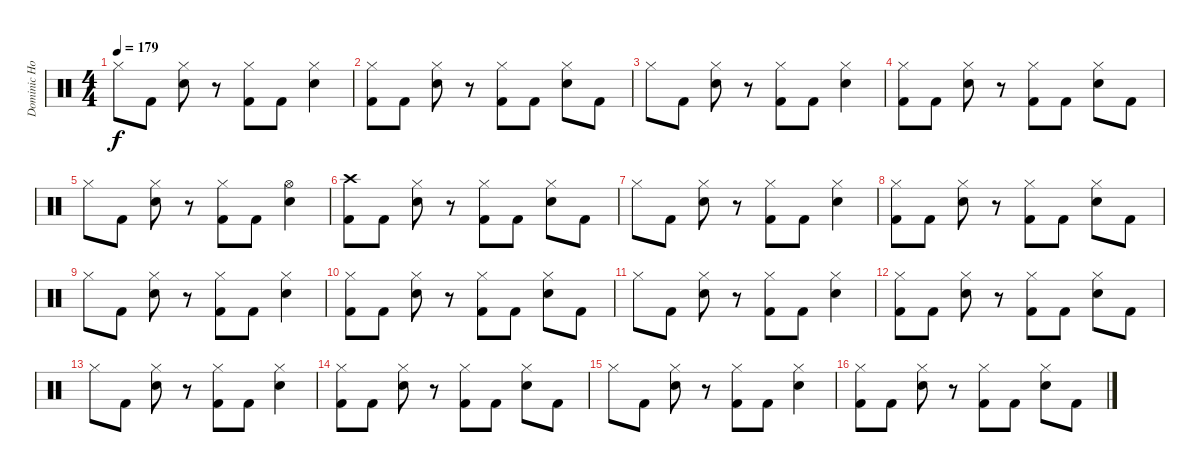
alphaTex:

\track ("Dominic Howard" "Dominic Ho") {instrument percussion}
\staff {score}
\articulation defaults
\ts (4 4)
\tempo 179
\clef neutral
\ks c "Hi-Hat (closed)".8{dy f} "Kick (hit) 2".8
("Hi-Hat (closed)" "Electric Snare (hit)").8 r.8 ("Hi-Hat (closed)" "Kick (hit) 2").8 "Kick (hit) 2".8 ("Hi-Hat (closed)" "Electric Snare (hit)").4 |
("Hi-Hat (closed)" "Kick (hit) 2").8 "Kick (hit) 2".8 ("Hi-Hat (closed)" "Electric Snare (hit)").8 r.8 ("Hi-Hat (closed)" "Kick (hit) 2").8 "Kick (hit) 2".8 ("Hi-Hat (closed)" "Electric Snare (hit)").8 "Kick (hit) 2".8 |
"Hi-Hat (closed)".8 "Kick (hit) 2".8 ("Hi-Hat (closed)" "Electric Snare (hit)").8 r.8 ("Hi-Hat (closed)" "Kick (hit) 2").8 "Kick (hit) 2".8 ("Hi-Hat (closed)" "Electric Snare (hit)").4 |
("Hi-Hat (closed)" "Kick (hit) 2").8 "Kick (hit) 2".8 ("Hi-Hat (closed)" "Electric Snare (hit)").8 r.8 ("Hi-Hat (closed)" "Kick (hit) 2").8 "Kick (hit) 2".8 ("Hi-Hat (closed)" "Electric Snare (hit)").8 "Kick (hit) 2".8 |
"Hi-Hat (closed)".8 "Kick (hit) 2".8 ("Hi-Hat (closed)" "Electric Snare (hit)").8 r.8 ("Hi-Hat (closed)" "Kick (hit) 2").8 "Kick (hit) 2".8 ("Hi-Hat (open)" "Electric Snare (hit)").4 |
("Crash high (hit)" "Kick (hit) 2").8 "Kick (hit) 2".8 ("Hi-Hat (closed)" "Electric Snare (hit)").8 r.8 ("Hi-Hat (closed)" "Kick (hit) 2").8 "Kick (hit) 2".8 ("Hi-Hat (closed)" "Electric Snare (hit)").8 "Kick (hit) 2".8 |
"Hi-Hat (closed)".8 "Kick (hit) 2".8 ("Hi-Hat (closed)" "Electric Snare (hit)").8 r.8 ("Hi-Hat (closed)" "Kick (hit) 2").8 "Kick (hit) 2".8 ("Hi-Hat (closed)" "Electric Snare (hit)").4 |
("Hi-Hat (closed)" "Kick (hit) 2").8 "Kick (hit) 2".8 ("Hi-Hat (closed)" "Electric Snare (hit)").8 r.8 ("Hi-Hat (closed)" "Kick (hit) 2").8 "Kick (hit) 2".8 ("Hi-Hat (closed)" "Electric Snare (hit)").8 "Kick (hit) 2".8 |
"Hi-Hat (closed)".8 "Kick (hit) 2".8 ("Hi-Hat (closed)" "Electric Snare (hit)").8 r.8 ("Hi-Hat (closed)" "Kick (hit) 2").8 "Kick (hit) 2".8 ("Hi-Hat (closed)" "Electric Snare (hit)").4 |
("Hi-Hat (closed)" "Kick (hit) 2").8 "Kick (hit) 2".8 ("Hi-Hat (closed)" "Electric Snare (hit)").8 r.8 ("Hi-Hat (closed)" "Kick (hit) 2").8 "Kick (hit) 2".8 ("Hi-Hat (closed)" "Electric Snare (hit)").8 "Kick (hit) 2".8 |
"Hi-Hat (closed)".8 "Kick (hit) 2".8 ("Hi-Hat (closed)" "Electric Snare (hit)").8 r.8 ("Hi-Hat (closed)" "Kick (hit) 2").8 "Kick (hit) 2".8 ("Hi-Hat (closed)" "Electric Snare (hit)").4 |
("Hi-Hat (closed)" "Kick (hit) 2").8 "Kick (hit) 2".8 ("Hi-Hat (closed)" "Electric Snare (hit)").8 r.8 ("Hi-Hat (closed)" "Kick (hit) 2").8 "Kick (hit) 2".8 ("Hi-Hat (closed)" "Electric Snare (hit)").8 "Kick (hit) 2".8 |
"Hi-Hat (closed)".8 "Kick (hit) 2".8 ("Hi-Hat (closed)" "Electric Snare (hit)").8 r.8 ("Hi-Hat (closed)" "Kick (hit) 2").8 "Kick (hit) 2".8 ("Hi-Hat (closed)" "Electric Snare (hit)").4 |
("Hi-Hat (closed)" "Kick (hit) 2").8 "Kick (hit) 2".8 ("Hi-Hat (closed)" "Electric Snare (hit)").8 r.8 ("Hi-Hat (closed)" "Kick (hit) 2").8 "Kick (hit) 2".8 ("Hi-Hat (closed)" "Electric Snare (hit)").8 "Kick (hit) 2".8 |
"Hi-Hat (closed)".8 "Kick (hit) 2".8 ("Hi-Hat (closed)" "Electric Snare (hit)").8 r.8 ("Hi-Hat (closed)" "Kick (hit) 2").8 "Kick (hit) 2".8 ("Hi-Hat (closed)" "Electric Snare (hit)").4 |
("Hi-Hat (closed)" "Kick (hit) 2").8 "Kick (hit) 2".8 ("Hi-Hat (closed)" "Electric Snare (hit)").8 r.8 ("Hi-Hat (closed)" "Kick (hit) 2").8 "Kick (hit) 2".8 ("Hi-Hat (closed)" "Electric Snare (hit)").8 "Kick (hit) 2".8
